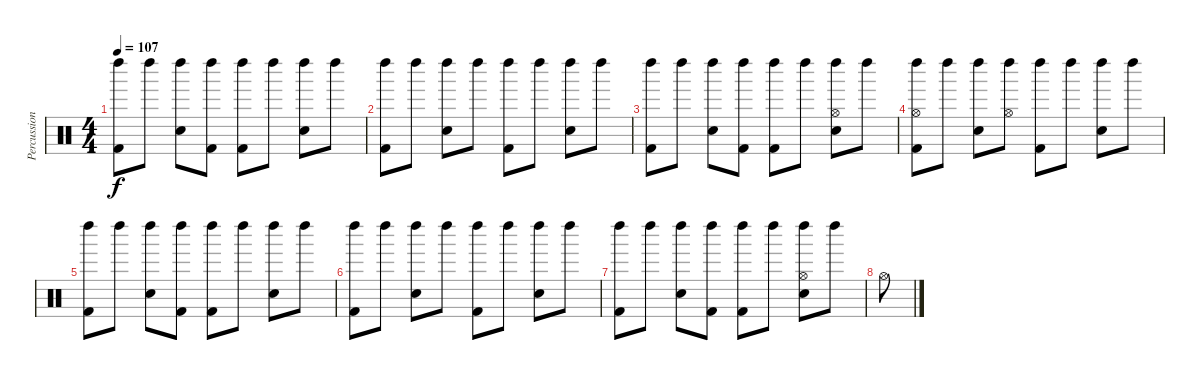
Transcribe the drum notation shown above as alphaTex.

\track ("Percussion" "Percussion") {instrument percussion}
\staff {score}
\articulation defaults
\ts (4 4)
\tempo 107
\clef neutral
\ks c
("Kick (hit) 2" "Left Maraca (hit)").8{dy f} "Left Maraca (hit)".8 ("Snare (hit) 2" "Left Maraca (hit)").8 ("Kick (hit) 2" "Left Maraca (hit)").8 ("Kick (hit) 2" "Left Maraca (hit)").8 "Left Maraca (hit)".8 ("Snare (hit) 2" "Left Maraca (hit)").8 "Left Maraca (hit)".8 |
("Kick (hit) 2" "Left Maraca (hit)").8 "Left Maraca (hit)".8 ("Snare (hit) 2" "Left Maraca (hit)").8 "Left Maraca (hit)".8 ("Kick (hit) 2" "Left Maraca (hit)").8 "Left Maraca (hit)".8 ("Snare (hit) 2" "Left Maraca (hit)").8 "Left Maraca (hit)".8 |
("Kick (hit) 2" "Left Maraca (hit)").8 "Left Maraca (hit)".8 ("Snare (hit) 2" "Left Maraca (hit)").8 ("Kick (hit) 2" "Left Maraca (hit)").8 ("Kick (hit) 2" "Left Maraca (hit)").8 "Left Maraca (hit)".8 ("Snare (hit) 2" "Left Maraca (hit)" "Hi-Hat (open)").8 "Left Maraca (hit)".8 |
("Kick (hit) 2" "Left Maraca (hit)" "Hi-Hat (open)").8 "Left Maraca (hit)".8 ("Snare (hit) 2" "Left Maraca (hit)").8 ("Left Maraca (hit)" "Hi-Hat (open)").8 ("Kick (hit) 2" "Left Maraca (hit)").8 "Left Maraca (hit)".8 ("Snare (hit) 2" "Left Maraca (hit)").8 "Left Maraca (hit)".8 |
("Kick (hit) 2" "Left Maraca (hit)").8 "Left Maraca (hit)".8 ("Snare (hit) 2" "Left Maraca (hit)").8 ("Kick (hit) 2" "Left Maraca (hit)").8 ("Kick (hit) 2" "Left Maraca (hit)").8 "Left Maraca (hit)".8 ("Snare (hit) 2" "Left Maraca (hit)").8 "Left Maraca (hit)".8 |
("Kick (hit) 2" "Left Maraca (hit)").8 "Left Maraca (hit)".8 ("Snare (hit) 2" "Left Maraca (hit)").8 "Left Maraca (hit)".8 ("Kick (hit) 2" "Left Maraca (hit)").8 "Left Maraca (hit)".8 ("Snare (hit) 2" "Left Maraca (hit)").8 "Left Maraca (hit)".8 |
("Kick (hit) 2" "Left Maraca (hit)").8 "Left Maraca (hit)".8 ("Snare (hit) 2" "Left Maraca (hit)").8 ("Kick (hit) 2" "Left Maraca (hit)").8 ("Kick (hit) 2" "Left Maraca (hit)").8 "Left Maraca (hit)".8 ("Snare (hit) 2" "Left Maraca (hit)" "Hi-Hat (open)").8 "Left Maraca (hit)".8 |
"Hi-Hat (open)".8
